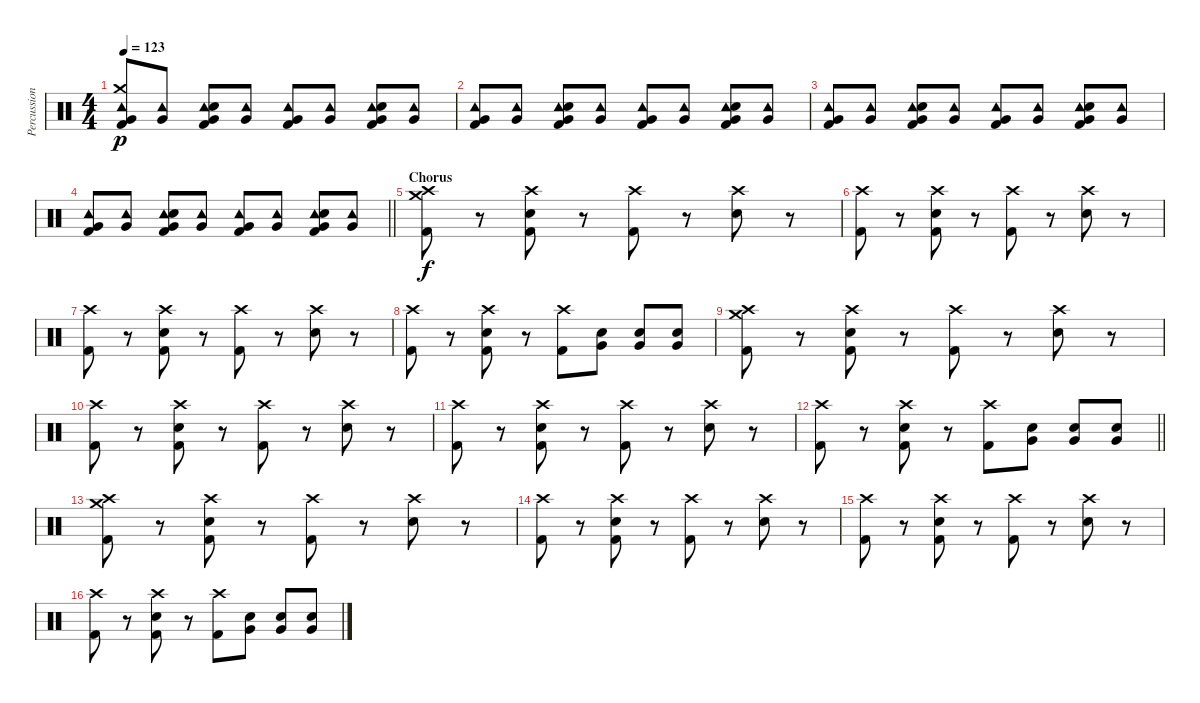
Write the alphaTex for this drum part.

\track ("Percussion" "Percussion") {instrument percussion}
\staff {score}
\articulation defaults
\ts (4 4)
\tempo 123
\clef neutral
\ks c
("Tambourine (hit)" "Crash medium (hit)" "Very Low Tom (hit)" "Kick (hit) 2").8{dy p} ("Tambourine (hit)" "Very Low Tom (hit)").8 ("Tambourine (hit)" "Very Low Tom (hit)" "Snare (hit) 2" "Kick (hit) 2").8 ("Tambourine (hit)" "Very Low Tom (hit)").8 ("Tambourine (hit)" "Very Low Tom (hit)" "Kick (hit) 2").8 ("Tambourine (hit)" "Very Low Tom (hit)").8 ("Tambourine (hit)" "Very Low Tom (hit)" "Snare (hit) 2" "Kick (hit) 2").8 ("Tambourine (hit)" "Very Low Tom (hit)").8 |
("Tambourine (hit)" "Very Low Tom (hit)" "Kick (hit) 2").8 ("Tambourine (hit)" "Very Low Tom (hit)").8 ("Tambourine (hit)" "Very Low Tom (hit)" "Snare (hit) 2" "Kick (hit) 2").8 ("Tambourine (hit)" "Very Low Tom (hit)").8 ("Tambourine (hit)" "Very Low Tom (hit)" "Kick (hit) 2").8 ("Tambourine (hit)" "Very Low Tom (hit)").8 ("Tambourine (hit)" "Very Low Tom (hit)" "Snare (hit) 2" "Kick (hit) 2").8 ("Tambourine (hit)" "Very Low Tom (hit)").8 |
("Tambourine (hit)" "Very Low Tom (hit)" "Kick (hit) 2").8 ("Tambourine (hit)" "Very Low Tom (hit)").8 ("Tambourine (hit)" "Very Low Tom (hit)" "Snare (hit) 2" "Kick (hit) 2").8 ("Tambourine (hit)" "Very Low Tom (hit)").8 ("Tambourine (hit)" "Very Low Tom (hit)" "Kick (hit) 2").8 ("Tambourine (hit)" "Very Low Tom (hit)").8 ("Tambourine (hit)" "Very Low Tom (hit)" "Snare (hit) 2" "Kick (hit) 2").8 ("Tambourine (hit)" "Very Low Tom (hit)").8 |
\barLineRight lightlight
("Tambourine (hit)" "Very Low Tom (hit)" "Kick (hit) 2").8 ("Tambourine (hit)" "Very Low Tom (hit)").8 ("Tambourine (hit)" "Very Low Tom (hit)" "Snare (hit) 2" "Kick (hit) 2").8 ("Tambourine (hit)" "Very Low Tom (hit)").8 ("Tambourine (hit)" "Very Low Tom (hit)" "Kick (hit) 2").8 ("Tambourine (hit)" "Very Low Tom (hit)").8 ("Tambourine (hit)" "Very Low Tom (hit)" "Snare (hit) 2" "Kick (hit) 2").8 ("Tambourine (hit)" "Very Low Tom (hit)").8 |
\section ("" "Chorus")
("Crash medium (hit)" "Crash high (hit)" "Kick (hit) 2").8{dy f} r.8 ("Crash high (hit)" "Snare (hit) 2" "Kick (hit) 2").8 r.8 ("Crash high (hit)" "Kick (hit) 2").8 r.8 ("Crash high (hit)" "Snare (hit) 2").8 r.8 |
("Crash high (hit)" "Kick (hit) 2").8 r.8 ("Crash high (hit)" "Snare (hit) 2" "Kick (hit) 2").8 r.8 ("Crash high (hit)" "Kick (hit) 2").8 r.8 ("Crash high (hit)" "Snare (hit) 2").8 r.8 |
("Crash high (hit)" "Kick (hit) 2").8 r.8 ("Crash high (hit)" "Snare (hit) 2" "Kick (hit) 2").8 r.8 ("Crash high (hit)" "Kick (hit) 2").8 r.8 ("Crash high (hit)" "Snare (hit) 2").8 r.8 |
("Crash high (hit)" "Kick (hit) 2").8 r.8 ("Crash high (hit)" "Snare (hit) 2" "Kick (hit) 2").8 r.8 ("Crash high (hit)" "Kick (hit) 2").8 ("Very Low Tom (hit)" "Snare (hit) 2").8 ("Very Low Tom (hit)" "Snare (hit) 2").8 ("Very Low Tom (hit)" "Snare (hit) 2").8 |
("Crash medium (hit)" "Crash high (hit)" "Kick (hit) 2").8 r.8 ("Crash high (hit)" "Snare (hit) 2" "Kick (hit) 2").8 r.8 ("Crash high (hit)" "Kick (hit) 2").8 r.8 ("Crash high (hit)" "Snare (hit) 2").8 r.8 |
("Crash high (hit)" "Kick (hit) 2").8 r.8 ("Crash high (hit)" "Snare (hit) 2" "Kick (hit) 2").8 r.8 ("Crash high (hit)" "Kick (hit) 2").8 r.8 ("Crash high (hit)" "Snare (hit) 2").8 r.8 |
("Crash high (hit)" "Kick (hit) 2").8 r.8 ("Crash high (hit)" "Snare (hit) 2" "Kick (hit) 2").8 r.8 ("Crash high (hit)" "Kick (hit) 2").8 r.8 ("Crash high (hit)" "Snare (hit) 2").8 r.8 |
\barLineRight lightlight
("Crash high (hit)" "Kick (hit) 2").8 r.8 ("Crash high (hit)" "Snare (hit) 2" "Kick (hit) 2").8 r.8 ("Crash high (hit)" "Kick (hit) 2").8 ("Very Low Tom (hit)" "Snare (hit) 2").8 ("Very Low Tom (hit)" "Snare (hit) 2").8 ("Very Low Tom (hit)" "Snare (hit) 2").8 |
("Crash medium (hit)" "Crash high (hit)" "Kick (hit) 2").8 r.8 ("Crash high (hit)" "Snare (hit) 2" "Kick (hit) 2").8 r.8 ("Crash high (hit)" "Kick (hit) 2").8 r.8 ("Crash high (hit)" "Snare (hit) 2").8 r.8 |
("Crash high (hit)" "Kick (hit) 2").8 r.8 ("Crash high (hit)" "Snare (hit) 2" "Kick (hit) 2").8 r.8 ("Crash high (hit)" "Kick (hit) 2").8 r.8 ("Crash high (hit)" "Snare (hit) 2").8 r.8 |
("Crash high (hit)" "Kick (hit) 2").8 r.8 ("Crash high (hit)" "Snare (hit) 2" "Kick (hit) 2").8 r.8 ("Crash high (hit)" "Kick (hit) 2").8 r.8 ("Crash high (hit)" "Snare (hit) 2").8 r.8 |
("Crash high (hit)" "Kick (hit) 2").8 r.8 ("Crash high (hit)" "Snare (hit) 2" "Kick (hit) 2").8 r.8 ("Crash high (hit)" "Kick (hit) 2").8 ("Very Low Tom (hit)" "Snare (hit) 2").8 ("Very Low Tom (hit)" "Snare (hit) 2").8 ("Very Low Tom (hit)" "Snare (hit) 2").8
